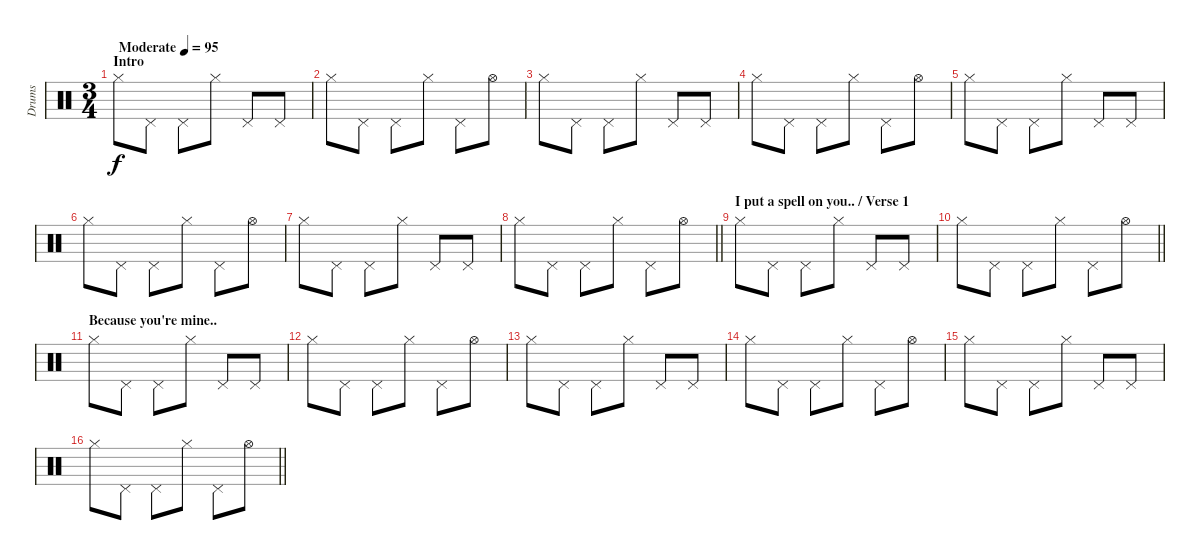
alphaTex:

\track ("Drums" "Drums") {instrument percussion}
\staff {score}
\articulation defaults
\ts (3 4)
\section ("" "Intro")
\tempo (95 "Moderate")
\clef neutral
\ks c "Hi-Hat (closed)".8{dy f} "Pedal Hi-Hat (hit)".8 "Pedal Hi-Hat (hit)".8 "Hi-Hat (closed)".8 "Pedal Hi-Hat (hit)".8 "Pedal Hi-Hat (hit)".8
|
"Hi-Hat (closed)".8 "Pedal Hi-Hat (hit)".8 "Pedal Hi-Hat (hit)".8 "Hi-Hat (closed)".8 "Pedal Hi-Hat (hit)".8 "Hi-Hat (open)".8 |
"Hi-Hat (closed)".8 "Pedal Hi-Hat (hit)".8 "Pedal Hi-Hat (hit)".8 "Hi-Hat (closed)".8 "Pedal Hi-Hat (hit)".8 "Pedal Hi-Hat (hit)".8 |
"Hi-Hat (closed)".8 "Pedal Hi-Hat (hit)".8 "Pedal Hi-Hat (hit)".8 "Hi-Hat (closed)".8 "Pedal Hi-Hat (hit)".8 "Hi-Hat (open)".8 |
"Hi-Hat (closed)".8 "Pedal Hi-Hat (hit)".8 "Pedal Hi-Hat (hit)".8 "Hi-Hat (closed)".8 "Pedal Hi-Hat (hit)".8 "Pedal Hi-Hat (hit)".8 |
"Hi-Hat (closed)".8 "Pedal Hi-Hat (hit)".8 "Pedal Hi-Hat (hit)".8 "Hi-Hat (closed)".8 "Pedal Hi-Hat (hit)".8 "Hi-Hat (open)".8 |
"Hi-Hat (closed)".8 "Pedal Hi-Hat (hit)".8 "Pedal Hi-Hat (hit)".8 "Hi-Hat (closed)".8 "Pedal Hi-Hat (hit)".8 "Pedal Hi-Hat (hit)".8 |
\barLineRight lightlight "Hi-Hat (closed)".8 "Pedal Hi-Hat (hit)".8 "Pedal Hi-Hat (hit)".8 "Hi-Hat (closed)".8 "Pedal Hi-Hat (hit)".8 "Hi-Hat (open)".8
|
\section ("" "I put a spell on you.. / Verse 1")
"Hi-Hat (closed)".8 "Pedal Hi-Hat (hit)".8 "Pedal Hi-Hat (hit)".8 "Hi-Hat (closed)".8 "Pedal Hi-Hat (hit)".8 "Pedal Hi-Hat (hit)".8 |
\barLineRight lightlight "Hi-Hat (closed)".8 "Pedal Hi-Hat (hit)".8 "Pedal Hi-Hat (hit)".8 "Hi-Hat (closed)".8 "Pedal Hi-Hat (hit)".8 "Hi-Hat (open)".8
|
\section ("" "Because you're mine..")
"Hi-Hat (closed)".8 "Pedal Hi-Hat (hit)".8 "Pedal Hi-Hat (hit)".8 "Hi-Hat (closed)".8 "Pedal Hi-Hat (hit)".8 "Pedal Hi-Hat (hit)".8 |
"Hi-Hat (closed)".8 "Pedal Hi-Hat (hit)".8 "Pedal Hi-Hat (hit)".8 "Hi-Hat (closed)".8 "Pedal Hi-Hat (hit)".8 "Hi-Hat (open)".8 |
"Hi-Hat (closed)".8 "Pedal Hi-Hat (hit)".8 "Pedal Hi-Hat (hit)".8 "Hi-Hat (closed)".8 "Pedal Hi-Hat (hit)".8 "Pedal Hi-Hat (hit)".8 |
"Hi-Hat (closed)".8 "Pedal Hi-Hat (hit)".8 "Pedal Hi-Hat (hit)".8 "Hi-Hat (closed)".8 "Pedal Hi-Hat (hit)".8 "Hi-Hat (open)".8 |
"Hi-Hat (closed)".8 "Pedal Hi-Hat (hit)".8 "Pedal Hi-Hat (hit)".8 "Hi-Hat (closed)".8 "Pedal Hi-Hat (hit)".8 "Pedal Hi-Hat (hit)".8 |
\barLineRight lightlight "Hi-Hat (closed)".8 "Pedal Hi-Hat (hit)".8 "Pedal Hi-Hat (hit)".8 "Hi-Hat (closed)".8 "Pedal Hi-Hat (hit)".8 "Hi-Hat (open)".8
